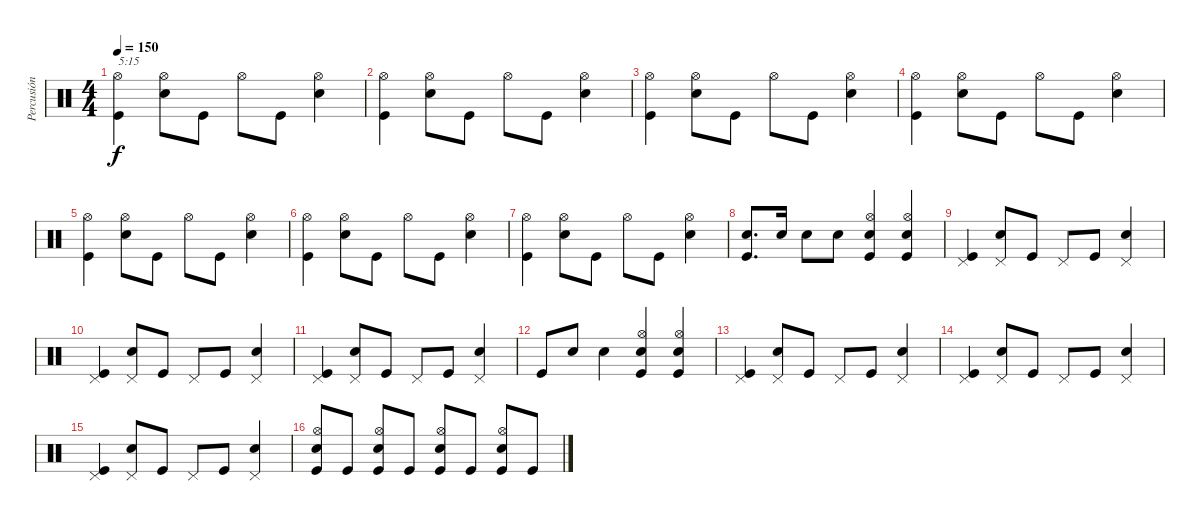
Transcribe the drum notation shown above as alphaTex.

\track ("Percusión" "Percusión") {instrument percussion}
\staff {score}
\articulation defaults
\ts (4 4)
\tempo 150
\clef neutral
\ks c
("Kick (hit)" "Hi-Hat (open)").4{txt "5:15" dy f} ("Snare (hit) 2" "Hi-Hat (open)").8 "Kick (hit)".8 "Hi-Hat (open)".8 "Kick (hit)".8 ("Snare (hit) 2" "Hi-Hat (open)").4 |
("Kick (hit)" "Hi-Hat (open)").4 ("Snare (hit) 2" "Hi-Hat (open)").8 "Kick (hit)".8 "Hi-Hat (open)".8 "Kick (hit)".8 ("Snare (hit) 2" "Hi-Hat (open)").4 |
("Kick (hit)" "Hi-Hat (open)").4 ("Snare (hit) 2" "Hi-Hat (open)").8 "Kick (hit)".8 "Hi-Hat (open)".8 "Kick (hit)".8 ("Snare (hit) 2" "Hi-Hat (open)").4 |
("Kick (hit)" "Hi-Hat (open)").4 ("Snare (hit) 2" "Hi-Hat (open)").8 "Kick (hit)".8 "Hi-Hat (open)".8 "Kick (hit)".8 ("Snare (hit) 2" "Hi-Hat (open)").4 |
("Kick (hit)" "Hi-Hat (open)").4 ("Snare (hit) 2" "Hi-Hat (open)").8 "Kick (hit)".8 "Hi-Hat (open)".8 "Kick (hit)".8 ("Snare (hit) 2" "Hi-Hat (open)").4 |
("Kick (hit)" "Hi-Hat (open)").4 ("Snare (hit) 2" "Hi-Hat (open)").8 "Kick (hit)".8 "Hi-Hat (open)".8 "Kick (hit)".8 ("Snare (hit) 2" "Hi-Hat (open)").4 |
("Kick (hit)" "Hi-Hat (open)").4 ("Snare (hit) 2" "Hi-Hat (open)").8 "Kick (hit)".8 "Hi-Hat (open)".8 "Kick (hit)".8 ("Snare (hit) 2" "Hi-Hat (open)").4 |
("Kick (hit)" "Snare (hit) 2").8{d} "Snare (hit) 2".16 "Snare (hit) 2".8 "Snare (hit) 2".8 ("Kick (hit)" "Snare (hit) 2" "Hi-Hat (open)").4 ("Kick (hit)" "Snare (hit) 2" "Hi-Hat (open)").4 |
("Kick (hit)" "Pedal Hi-Hat (hit)").4 ("Snare (hit) 2" "Pedal Hi-Hat (hit)").8 "Kick (hit)".8 "Pedal Hi-Hat (hit)".8 "Kick (hit)".8 ("Snare (hit) 2" "Pedal Hi-Hat (hit)").4 |
("Kick (hit)" "Pedal Hi-Hat (hit)").4 ("Snare (hit) 2" "Pedal Hi-Hat (hit)").8 "Kick (hit)".8 "Pedal Hi-Hat (hit)".8 "Kick (hit)".8 ("Snare (hit) 2" "Pedal Hi-Hat (hit)").4 |
("Kick (hit)" "Pedal Hi-Hat (hit)").4 ("Snare (hit) 2" "Pedal Hi-Hat (hit)").8 "Kick (hit)".8 "Pedal Hi-Hat (hit)".8 "Kick (hit)".8 ("Snare (hit) 2" "Pedal Hi-Hat (hit)").4 |
"Kick (hit)".8 "Snare (hit) 2".8 "Snare (hit) 2".4 ("Kick (hit)" "Snare (hit) 2" "Hi-Hat (open)").4 ("Kick (hit)" "Snare (hit) 2" "Hi-Hat (open)").4 |
("Kick (hit)" "Pedal Hi-Hat (hit)").4 ("Snare (hit) 2" "Pedal Hi-Hat (hit)").8 "Kick (hit)".8 "Pedal Hi-Hat (hit)".8 "Kick (hit)".8 ("Snare (hit) 2" "Pedal Hi-Hat (hit)").4 |
("Kick (hit)" "Pedal Hi-Hat (hit)").4 ("Snare (hit) 2" "Pedal Hi-Hat (hit)").8 "Kick (hit)".8 "Pedal Hi-Hat (hit)".8 "Kick (hit)".8 ("Snare (hit) 2" "Pedal Hi-Hat (hit)").4 |
("Kick (hit)" "Pedal Hi-Hat (hit)").4 ("Snare (hit) 2" "Pedal Hi-Hat (hit)").8 "Kick (hit)".8 "Pedal Hi-Hat (hit)".8 "Kick (hit)".8 ("Snare (hit) 2" "Pedal Hi-Hat (hit)").4 |
("Kick (hit)" "Snare (hit) 2" "Hi-Hat (open)").8 "Kick (hit)".8 ("Kick (hit)" "Snare (hit) 2" "Hi-Hat (open)").8 "Kick (hit)".8 ("Kick (hit)" "Snare (hit) 2" "Hi-Hat (open)").8 "Kick (hit)".8 ("Kick (hit)" "Snare (hit) 2" "Hi-Hat (open)").8 "Kick (hit)".8
